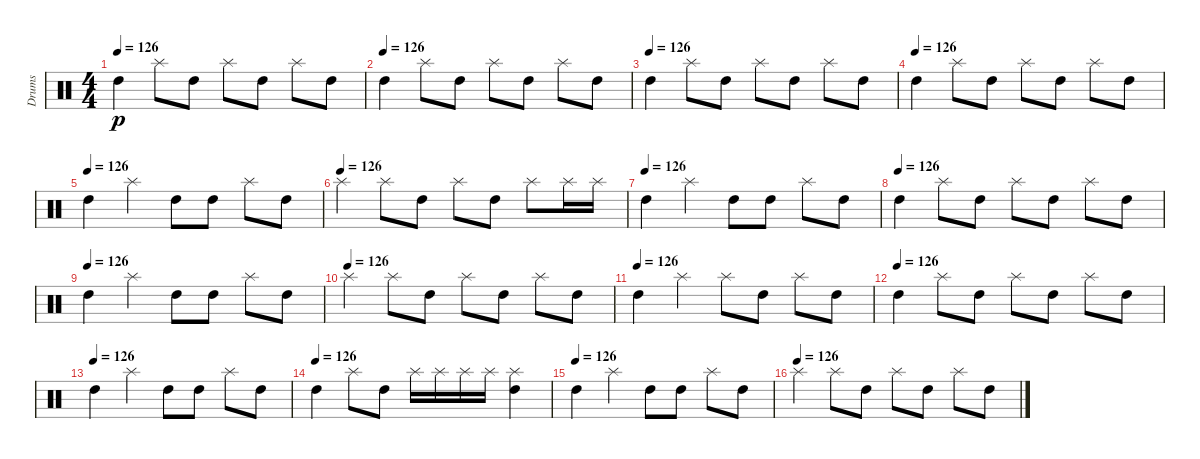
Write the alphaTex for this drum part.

\track ("Drums" "Drums") {instrument percussion}
\staff {score}
\articulation defaults
\ts (4 4)
\tempo 126
\clef neutral
\ks c "High Tom (hit)".4{dy p} "Splash (hit)".8 "High Tom (hit)".8 "Splash (hit)".8 "High Tom (hit)".8 "Splash (hit)".8 "High Tom (hit)".8
|
\tempo (126)
"High Tom (hit)".4 "Splash (hit)".8 "High Tom (hit)".8 "Splash (hit)".8 "High Tom (hit)".8 "Splash (hit)".8 "High Tom (hit)".8 |
\tempo (126)
"High Tom (hit)".4 "Splash (hit)".8 "High Tom (hit)".8 "Splash (hit)".8 "High Tom (hit)".8 "Splash (hit)".8 "High Tom (hit)".8 |
\tempo (126)
"High Tom (hit)".4 "Splash (hit)".8 "High Tom (hit)".8 "Splash (hit)".8 "High Tom (hit)".8 "Splash (hit)".8 "High Tom (hit)".8 |
\tempo (126)
"High Tom (hit)".4 "Splash (hit)".4 "High Tom (hit)".8 "High Tom (hit)".8 "Splash (hit)".8 "High Tom (hit)".8 |
\tempo (126)
"Splash (hit)".4 "Splash (hit)".8 "High Tom (hit)".8 "Splash (hit)".8 "High Tom (hit)".8 "Splash (hit)".8 "Splash (hit)".16 "Splash (hit)".16 |
\tempo (126)
"High Tom (hit)".4 "Splash (hit)".4 "High Tom (hit)".8 "High Tom (hit)".8 "Splash (hit)".8 "High Tom (hit)".8 |
\tempo (126)
"High Tom (hit)".4 "Splash (hit)".8 "High Tom (hit)".8 "Splash (hit)".8 "High Tom (hit)".8 "Splash (hit)".8 "High Tom (hit)".8 |
\tempo (126)
"High Tom (hit)".4 "Splash (hit)".4 "High Tom (hit)".8 "High Tom (hit)".8 "Splash (hit)".8 "High Tom (hit)".8 |
\tempo (126)
"Splash (hit)".4 "Splash (hit)".8 "High Tom (hit)".8 "Splash (hit)".8 "High Tom (hit)".8 "Splash (hit)".8 "High Tom (hit)".8 |
\tempo (126)
"High Tom (hit)".4 "Splash (hit)".4 "Splash (hit)".8 "High Tom (hit)".8 "Splash (hit)".8 "High Tom (hit)".8 |
\tempo (126)
"High Tom (hit)".4 "Splash (hit)".8 "High Tom (hit)".8 "Splash (hit)".8 "High Tom (hit)".8 "Splash (hit)".8 "High Tom (hit)".8 |
\tempo (126)
"High Tom (hit)".4 "Splash (hit)".4 "High Tom (hit)".8 "High Tom (hit)".8 "Splash (hit)".8 "High Tom (hit)".8 |
\tempo (126)
"High Tom (hit)".4 "Splash (hit)".8 "High Tom (hit)".8 "Splash (hit)".16 "Splash (hit)".16 "Splash (hit)".16 "Splash (hit)".16 ("High Tom (hit)" "Splash (hit)").4 |
\tempo (126)
"High Tom (hit)".4 "Splash (hit)".4 "High Tom (hit)".8 "High Tom (hit)".8 "Splash (hit)".8 "High Tom (hit)".8 |
\tempo (126)
"Splash (hit)".4 "Splash (hit)".8 "High Tom (hit)".8 "Splash (hit)".8 "High Tom (hit)".8 "Splash (hit)".8 "High Tom (hit)".8
